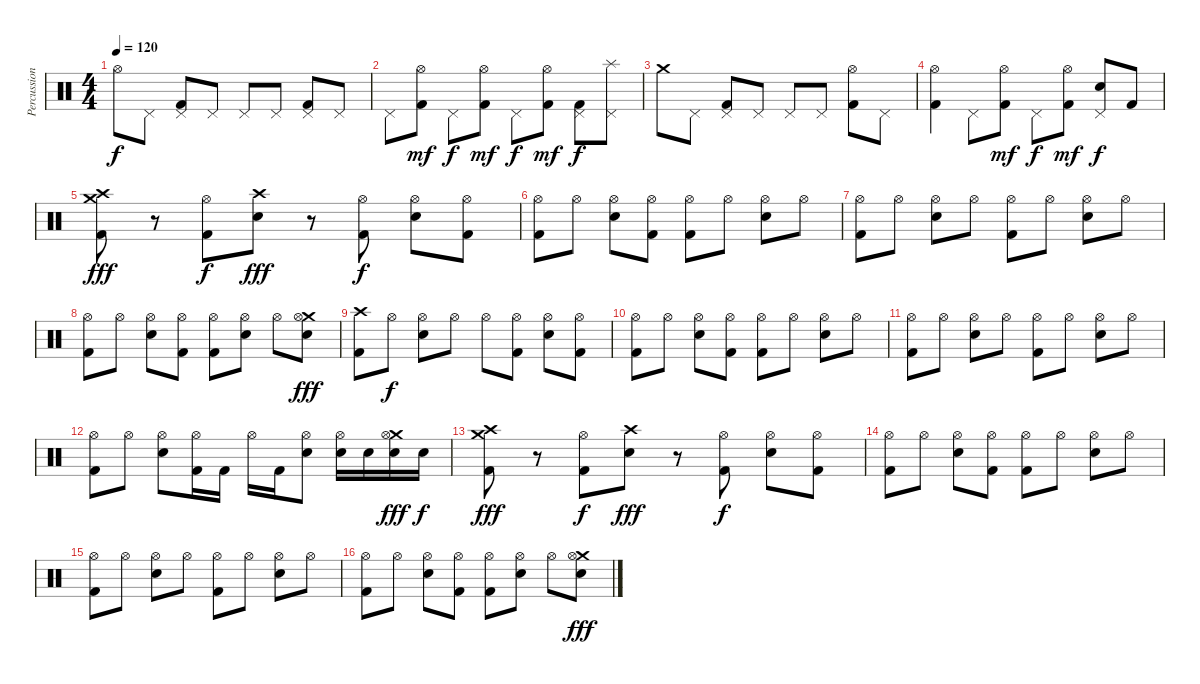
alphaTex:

\track ("Percussion" "Percussion") {instrument percussion}
\staff {score}
\articulation defaults
\ts (4 4)
\tempo 120
\clef neutral
\ks c "Hi-Hat (open)".8{dy f} "Pedal Hi-Hat (hit)".8
("Pedal Hi-Hat (hit)" "Kick (hit) 2").8 "Pedal Hi-Hat (hit)".8 "Pedal Hi-Hat (hit)".8 "Pedal Hi-Hat (hit)".8 ("Pedal Hi-Hat (hit)" "Kick (hit) 2").8 "Pedal Hi-Hat (hit)".8 |
"Pedal Hi-Hat (hit)".8 ("Hi-Hat (open)" "Kick (hit) 2").8{dy mf} "Pedal Hi-Hat (hit)".8{dy f} ("Hi-Hat (open)" "Kick (hit) 2").8{dy mf} "Pedal Hi-Hat (hit)".8{dy f} ("Hi-Hat (open)" "Kick (hit) 2").8{dy mf} ("Pedal Hi-Hat (hit)" "Kick (hit) 2").8{dy f} ("Splash (hit)" "Pedal Hi-Hat (hit)").8 |
"Crash medium (hit)".8 "Pedal Hi-Hat (hit)".8 ("Pedal Hi-Hat (hit)" "Kick (hit) 2").8 "Pedal Hi-Hat (hit)".8 "Pedal Hi-Hat (hit)".8 "Pedal Hi-Hat (hit)".8 ("Hi-Hat (open)" "Kick (hit) 2").8 "Pedal Hi-Hat (hit)".8 |
("Hi-Hat (open)" "Kick (hit) 2").4 "Pedal Hi-Hat (hit)".8 ("Hi-Hat (open)" "Kick (hit) 2").8{dy mf} "Pedal Hi-Hat (hit)".8{dy f} ("Hi-Hat (open)" "Kick (hit) 2").8{dy mf} ("Pedal Hi-Hat (hit)" "Electric Snare (hit)").8{dy f} "Kick (hit) 2".8 |
("Crash high (hit)" "Crash medium (hit)" "Kick (hit) 2").8{dy fff} r.8 ("Hi-Hat (open)" "Kick (hit) 2").8{dy f} ("Crash high (hit)" "Electric Snare (hit)").8{dy fff} r.8 ("Hi-Hat (open)" "Kick (hit) 2").8{dy f} ("Hi-Hat (open)" "Electric Snare (hit)").8 ("Hi-Hat (open)" "Kick (hit) 2").8 |
("Hi-Hat (open)" "Kick (hit) 2").8 "Hi-Hat (open)".8 ("Hi-Hat (open)" "Electric Snare (hit)").8 ("Hi-Hat (open)" "Kick (hit) 2").8 ("Hi-Hat (open)" "Kick (hit) 2").8 "Hi-Hat (open)".8 ("Hi-Hat (open)" "Electric Snare (hit)").8 "Hi-Hat (open)".8 |
("Hi-Hat (open)" "Kick (hit) 2").8 "Hi-Hat (open)".8 ("Hi-Hat (open)" "Electric Snare (hit)").8 "Hi-Hat (open)".8 ("Hi-Hat (open)" "Kick (hit) 2").8 "Hi-Hat (open)".8 ("Hi-Hat (open)" "Electric Snare (hit)").8 "Hi-Hat (open)".8 |
("Hi-Hat (open)" "Kick (hit) 2").8 "Hi-Hat (open)".8 ("Hi-Hat (open)" "Electric Snare (hit)").8 ("Hi-Hat (open)" "Kick (hit) 2").8 ("Hi-Hat (open)" "Kick (hit) 2").8 ("Hi-Hat (open)" "Electric Snare (hit)").8 "Hi-Hat (open)".8 ("Crash medium (hit)" "Hi-Hat (open)" "Electric Snare (hit)").8{dy fff} |
("Crash high (hit)" "Kick (hit) 2").8 "Hi-Hat (open)".8{dy f} ("Hi-Hat (open)" "Electric Snare (hit)").8 "Hi-Hat (open)".8 "Hi-Hat (open)".8 ("Hi-Hat (open)" "Kick (hit) 2").8 ("Hi-Hat (open)" "Electric Snare (hit)").8 ("Hi-Hat (open)" "Kick (hit) 2").8 |
("Hi-Hat (open)" "Kick (hit) 2").8 "Hi-Hat (open)".8 ("Hi-Hat (open)" "Electric Snare (hit)").8 ("Hi-Hat (open)" "Kick (hit) 2").8 ("Hi-Hat (open)" "Kick (hit) 2").8 "Hi-Hat (open)".8 ("Hi-Hat (open)" "Electric Snare (hit)").8 "Hi-Hat (open)".8 |
("Hi-Hat (open)" "Kick (hit) 2").8 "Hi-Hat (open)".8 ("Hi-Hat (open)" "Electric Snare (hit)").8 "Hi-Hat (open)".8 ("Hi-Hat (open)" "Kick (hit) 2").8 "Hi-Hat (open)".8 ("Hi-Hat (open)" "Electric Snare (hit)").8 "Hi-Hat (open)".8 |
("Hi-Hat (open)" "Kick (hit) 2").8 "Hi-Hat (open)".8 ("Hi-Hat (open)" "Electric Snare (hit)").8 ("Hi-Hat (open)" "Kick (hit) 2").16 "Kick (hit) 2".16 "Hi-Hat (open)".16 "Kick (hit) 2".16 ("Hi-Hat (open)" "Electric Snare (hit)").8 ("Hi-Hat (open)" "Electric Snare (hit)").16 "Electric Snare (hit)".16 ("Crash medium (hit)" "Hi-Hat (open)" "Electric Snare (hit)").16{dy fff} "Electric Snare (hit)".16{dy f} |
("Crash high (hit)" "Crash medium (hit)" "Kick (hit) 2").8{dy fff} r.8 ("Hi-Hat (open)" "Kick (hit) 2").8{dy f} ("Crash high (hit)" "Electric Snare (hit)").8{dy fff} r.8 ("Hi-Hat (open)" "Kick (hit) 2").8{dy f} ("Hi-Hat (open)" "Electric Snare (hit)").8 ("Hi-Hat (open)" "Kick (hit) 2").8 |
("Hi-Hat (open)" "Kick (hit) 2").8 "Hi-Hat (open)".8 ("Hi-Hat (open)" "Electric Snare (hit)").8 ("Hi-Hat (open)" "Kick (hit) 2").8 ("Hi-Hat (open)" "Kick (hit) 2").8 "Hi-Hat (open)".8 ("Hi-Hat (open)" "Electric Snare (hit)").8 "Hi-Hat (open)".8 |
("Hi-Hat (open)" "Kick (hit) 2").8 "Hi-Hat (open)".8 ("Hi-Hat (open)" "Electric Snare (hit)").8 "Hi-Hat (open)".8 ("Hi-Hat (open)" "Kick (hit) 2").8 "Hi-Hat (open)".8 ("Hi-Hat (open)" "Electric Snare (hit)").8 "Hi-Hat (open)".8 |
("Hi-Hat (open)" "Kick (hit) 2").8 "Hi-Hat (open)".8 ("Hi-Hat (open)" "Electric Snare (hit)").8 ("Hi-Hat (open)" "Kick (hit) 2").8 ("Hi-Hat (open)" "Kick (hit) 2").8 ("Hi-Hat (open)" "Electric Snare (hit)").8 "Hi-Hat (open)".8 ("Crash medium (hit)" "Hi-Hat (open)" "Electric Snare (hit)").8{dy fff}
